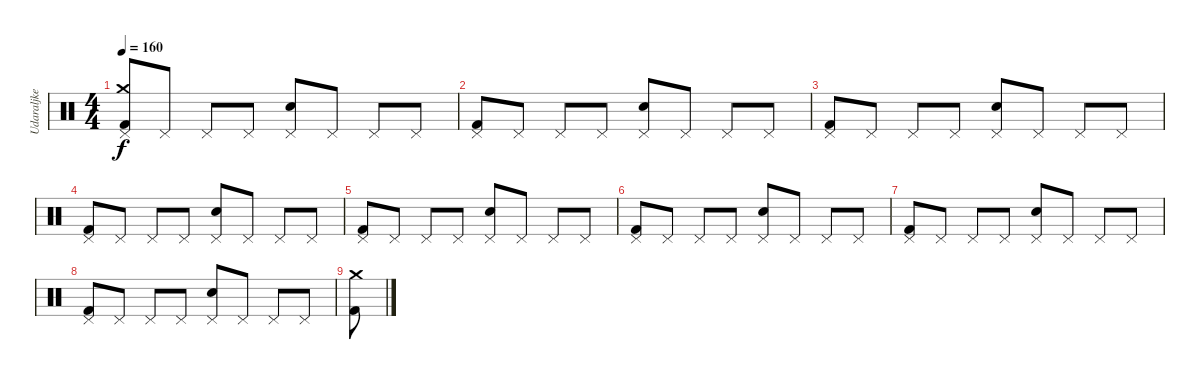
\track ("Udaraljke" "Udaraljke") {instrument percussion}
\staff {score}
\articulation defaults
\ts (4 4)
\tempo 160
\clef neutral
\ks c
("Pedal Hi-Hat (hit)" "Crash medium (hit)" "Kick (hit) 2").8{dy f} "Pedal Hi-Hat (hit)".8 "Pedal Hi-Hat (hit)".8 "Pedal Hi-Hat (hit)".8 ("Pedal Hi-Hat (hit)" "Snare (hit) 2").8 "Pedal Hi-Hat (hit)".8 "Pedal Hi-Hat (hit)".8 "Pedal Hi-Hat (hit)".8 |
("Pedal Hi-Hat (hit)" "Kick (hit) 2").8 "Pedal Hi-Hat (hit)".8 "Pedal Hi-Hat (hit)".8 "Pedal Hi-Hat (hit)".8 ("Pedal Hi-Hat (hit)" "Snare (hit) 2").8 "Pedal Hi-Hat (hit)".8 "Pedal Hi-Hat (hit)".8 "Pedal Hi-Hat (hit)".8 |
("Pedal Hi-Hat (hit)" "Kick (hit) 2").8 "Pedal Hi-Hat (hit)".8 "Pedal Hi-Hat (hit)".8 "Pedal Hi-Hat (hit)".8 ("Pedal Hi-Hat (hit)" "Snare (hit) 2").8 "Pedal Hi-Hat (hit)".8 "Pedal Hi-Hat (hit)".8 "Pedal Hi-Hat (hit)".8 |
("Pedal Hi-Hat (hit)" "Kick (hit) 2").8 "Pedal Hi-Hat (hit)".8 "Pedal Hi-Hat (hit)".8 "Pedal Hi-Hat (hit)".8 ("Pedal Hi-Hat (hit)" "Snare (hit) 2").8 "Pedal Hi-Hat (hit)".8 "Pedal Hi-Hat (hit)".8 "Pedal Hi-Hat (hit)".8 |
("Pedal Hi-Hat (hit)" "Kick (hit) 2").8 "Pedal Hi-Hat (hit)".8 "Pedal Hi-Hat (hit)".8 "Pedal Hi-Hat (hit)".8 ("Pedal Hi-Hat (hit)" "Snare (hit) 2").8 "Pedal Hi-Hat (hit)".8 "Pedal Hi-Hat (hit)".8 "Pedal Hi-Hat (hit)".8 |
("Pedal Hi-Hat (hit)" "Kick (hit) 2").8 "Pedal Hi-Hat (hit)".8 "Pedal Hi-Hat (hit)".8 "Pedal Hi-Hat (hit)".8 ("Pedal Hi-Hat (hit)" "Snare (hit) 2").8 "Pedal Hi-Hat (hit)".8 "Pedal Hi-Hat (hit)".8 "Pedal Hi-Hat (hit)".8 |
("Pedal Hi-Hat (hit)" "Kick (hit) 2").8 "Pedal Hi-Hat (hit)".8 "Pedal Hi-Hat (hit)".8 "Pedal Hi-Hat (hit)".8 ("Pedal Hi-Hat (hit)" "Snare (hit) 2").8 "Pedal Hi-Hat (hit)".8 "Pedal Hi-Hat (hit)".8 "Pedal Hi-Hat (hit)".8 |
("Pedal Hi-Hat (hit)" "Kick (hit) 2").8 "Pedal Hi-Hat (hit)".8 "Pedal Hi-Hat (hit)".8 "Pedal Hi-Hat (hit)".8 ("Pedal Hi-Hat (hit)" "Snare (hit) 2").8 "Pedal Hi-Hat (hit)".8 "Pedal Hi-Hat (hit)".8 "Pedal Hi-Hat (hit)".8 |
("Crash medium (hit)" "Kick (hit) 2").8
